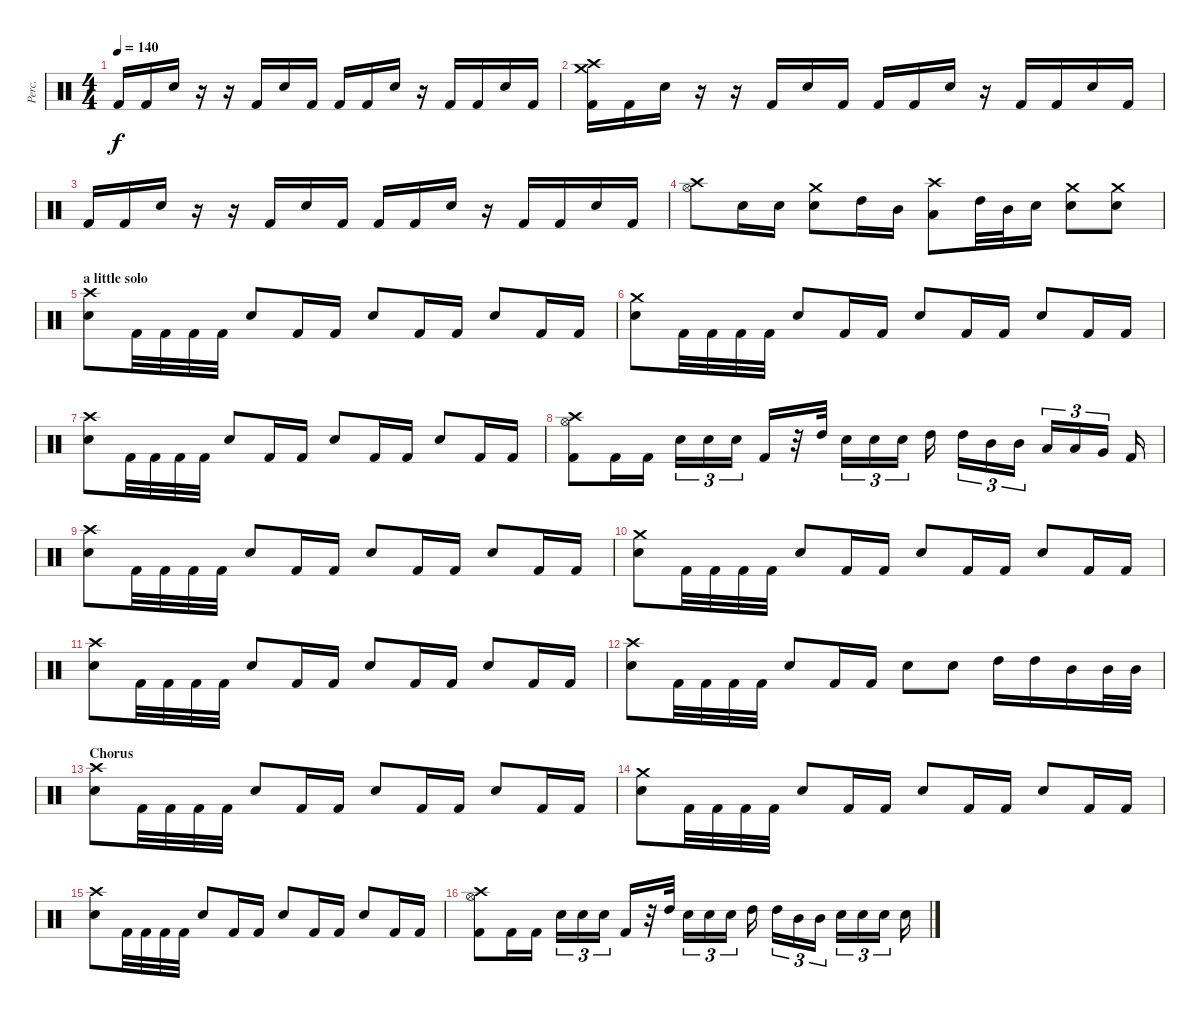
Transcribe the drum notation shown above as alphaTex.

\track ("Perc." "Perc.") {instrument percussion}
\staff {score}
\articulation defaults
\ts (4 4)
\tempo 140
\clef neutral
\ks c "Kick (hit) 2".16{dy f} "Kick (hit) 2".16 "Electric Snare (hit)".16
r.16 r.16 "Kick (hit) 2".16 "Electric Snare (hit)".16 "Kick (hit) 2".16 "Kick (hit) 2".16 "Kick (hit) 2".16 "Electric Snare (hit)".16 r.16 "Kick (hit) 2".16 "Kick (hit) 2".16 "Electric Snare (hit)".16 "Kick (hit) 2".16 |
("Crash high (hit)" "Crash medium (hit)" "Kick (hit) 2").16 "Kick (hit) 2".16 "Electric Snare (hit)".16 r.16 r.16 "Kick (hit) 2".16 "Electric Snare (hit)".16 "Kick (hit) 2".16 "Kick (hit) 2".16 "Kick (hit) 2".16 "Electric Snare (hit)".16 r.16 "Kick (hit) 2".16 "Kick (hit) 2".16 "Electric Snare (hit)".16 "Kick (hit) 2".16 |
"Kick (hit) 2".16 "Kick (hit) 2".16 "Electric Snare (hit)".16 r.16 r.16 "Kick (hit) 2".16 "Electric Snare (hit)".16 "Kick (hit) 2".16 "Kick (hit) 2".16 "Kick (hit) 2".16 "Electric Snare (hit)".16 r.16 "Kick (hit) 2".16 "Kick (hit) 2".16 "Electric Snare (hit)".16 "Kick (hit) 2".16 |
("Crash high (hit)" "Hi-Hat (open)").8 "Electric Snare (hit)".16 "Electric Snare (hit)".16 ("Crash medium (hit)" "Electric Snare (hit)").8 "High Tom (hit)".16 "Mid Tom (hit)".16 ("Crash high (hit)" "Low Tom (hit)").8 "High Tom (hit)".32 "Mid Tom (hit)".32 "Electric Snare (hit)".16 ("Crash medium (hit)" "Electric Snare (hit)").8 ("Crash medium (hit)" "Electric Snare (hit)").8 |
\section ("" "a little solo")
("Crash high (hit)" "Electric Snare (hit)").8 "Kick (hit) 2".32 "Kick (hit) 2".32 "Kick (hit) 2".32 "Kick (hit) 2".32 "Electric Snare (hit)".8 "Kick (hit) 2".16 "Kick (hit) 2".16 "Electric Snare (hit)".8 "Kick (hit) 2".16 "Kick (hit) 2".16 "Electric Snare (hit)".8 "Kick (hit) 2".16 "Kick (hit) 2".16 |
("Crash medium (hit)" "Electric Snare (hit)").8 "Kick (hit) 2".32 "Kick (hit) 2".32 "Kick (hit) 2".32 "Kick (hit) 2".32 "Electric Snare (hit)".8 "Kick (hit) 2".16 "Kick (hit) 2".16 "Electric Snare (hit)".8 "Kick (hit) 2".16 "Kick (hit) 2".16 "Electric Snare (hit)".8 "Kick (hit) 2".16 "Kick (hit) 2".16 |
("Crash high (hit)" "Electric Snare (hit)").8 "Kick (hit) 2".32 "Kick (hit) 2".32 "Kick (hit) 2".32 "Kick (hit) 2".32 "Electric Snare (hit)".8 "Kick (hit) 2".16 "Kick (hit) 2".16 "Electric Snare (hit)".8 "Kick (hit) 2".16 "Kick (hit) 2".16 "Electric Snare (hit)".8 "Kick (hit) 2".16 "Kick (hit) 2".16 |
("Crash high (hit)" "Hi-Hat (open)" "Kick (hit) 2").8 "Kick (hit) 2".16 "Kick (hit) 2".16 "Electric Snare (hit)".16{tu (3 2)} "Electric Snare (hit)".16{tu (3 2)} "Electric Snare (hit)".16{tu (3 2)} "Kick (hit) 2".16 r.32 "High Tom (hit)".32 "Electric Snare (hit)".16{tu (3 2)} "Electric Snare (hit)".16{tu (3 2)} "Electric Snare (hit)".16{tu (3 2)} "High Tom (hit)".16 "High Tom (hit)".16{tu (3 2)} "Mid Tom (hit)".16{tu (3 2)} "Mid Tom (hit)".16{tu (3 2)} "Low Tom (hit)".16{tu (3 2)} "Low Tom (hit)".16{tu (3 2)} "Very Low Tom (hit)".16{tu (3 2)} "Kick (hit) 2".16 |
("Crash high (hit)" "Electric Snare (hit)").8 "Kick (hit) 2".32 "Kick (hit) 2".32 "Kick (hit) 2".32 "Kick (hit) 2".32 "Electric Snare (hit)".8 "Kick (hit) 2".16 "Kick (hit) 2".16 "Electric Snare (hit)".8 "Kick (hit) 2".16 "Kick (hit) 2".16 "Electric Snare (hit)".8 "Kick (hit) 2".16 "Kick (hit) 2".16 |
("Crash medium (hit)" "Electric Snare (hit)").8 "Kick (hit) 2".32 "Kick (hit) 2".32 "Kick (hit) 2".32 "Kick (hit) 2".32 "Electric Snare (hit)".8 "Kick (hit) 2".16 "Kick (hit) 2".16 "Electric Snare (hit)".8 "Kick (hit) 2".16 "Kick (hit) 2".16 "Electric Snare (hit)".8 "Kick (hit) 2".16 "Kick (hit) 2".16 |
("Crash high (hit)" "Electric Snare (hit)").8 "Kick (hit) 2".32 "Kick (hit) 2".32 "Kick (hit) 2".32 "Kick (hit) 2".32 "Electric Snare (hit)".8 "Kick (hit) 2".16 "Kick (hit) 2".16 "Electric Snare (hit)".8 "Kick (hit) 2".16 "Kick (hit) 2".16 "Electric Snare (hit)".8 "Kick (hit) 2".16 "Kick (hit) 2".16 |
("Crash high (hit)" "Electric Snare (hit)").8 "Kick (hit) 2".32 "Kick (hit) 2".32 "Kick (hit) 2".32 "Kick (hit) 2".32 "Electric Snare (hit)".8 "Kick (hit) 2".16 "Kick (hit) 2".16 "Electric Snare (hit)".8 "Electric Snare (hit)".8 "High Tom (hit)".16 "High Tom (hit)".16 "Mid Tom (hit)".16 "Mid Tom (hit)".32 "Mid Tom (hit)".32 |
\section ("" "Chorus")
("Crash high (hit)" "Electric Snare (hit)").8 "Kick (hit) 2".32 "Kick (hit) 2".32 "Kick (hit) 2".32 "Kick (hit) 2".32 "Electric Snare (hit)".8 "Kick (hit) 2".16 "Kick (hit) 2".16 "Electric Snare (hit)".8 "Kick (hit) 2".16 "Kick (hit) 2".16 "Electric Snare (hit)".8 "Kick (hit) 2".16 "Kick (hit) 2".16 |
("Crash medium (hit)" "Electric Snare (hit)").8 "Kick (hit) 2".32 "Kick (hit) 2".32 "Kick (hit) 2".32 "Kick (hit) 2".32 "Electric Snare (hit)".8 "Kick (hit) 2".16 "Kick (hit) 2".16 "Electric Snare (hit)".8 "Kick (hit) 2".16 "Kick (hit) 2".16 "Electric Snare (hit)".8 "Kick (hit) 2".16 "Kick (hit) 2".16 |
("Crash high (hit)" "Electric Snare (hit)").8 "Kick (hit) 2".32 "Kick (hit) 2".32 "Kick (hit) 2".32 "Kick (hit) 2".32 "Electric Snare (hit)".8 "Kick (hit) 2".16 "Kick (hit) 2".16 "Electric Snare (hit)".8 "Kick (hit) 2".16 "Kick (hit) 2".16 "Electric Snare (hit)".8 "Kick (hit) 2".16 "Kick (hit) 2".16 |
("Crash high (hit)" "Hi-Hat (open)" "Kick (hit) 2").8 "Kick (hit) 2".16 "Kick (hit) 2".16 "Electric Snare (hit)".16{tu (3 2)} "Electric Snare (hit)".16{tu (3 2)} "Electric Snare (hit)".16{tu (3 2)} "Kick (hit) 2".16 r.32 "High Tom (hit)".32 "Electric Snare (hit)".16{tu (3 2)} "Electric Snare (hit)".16{tu (3 2)} "Electric Snare (hit)".16{tu (3 2)} "High Tom (hit)".16 "High Tom (hit)".16{tu (3 2)} "Mid Tom (hit)".16{tu (3 2)} "Mid Tom (hit)".16{tu (3 2)} "Electric Snare (hit)".16{tu (3 2)} "Electric Snare (hit)".16{tu (3 2)} "Electric Snare (hit)".16{tu (3 2)} "Electric Snare (hit)".16
